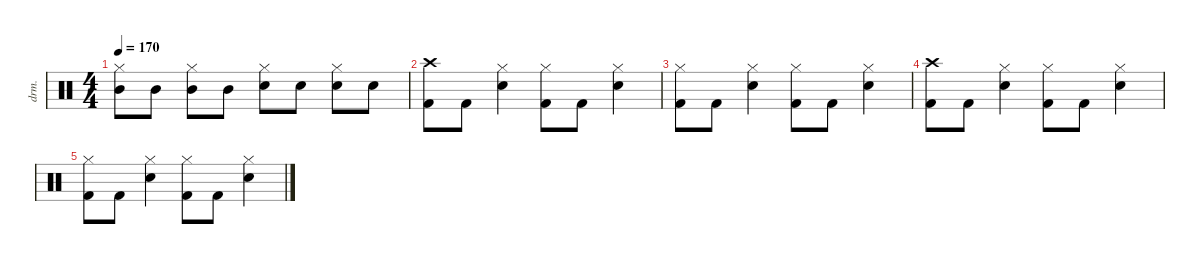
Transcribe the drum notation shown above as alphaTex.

\defaultSystemsLayout 4
\hideDynamics
\bracketExtendMode nobrackets
\otherSystemsTrackNameOrientation horizontal
\track ("Percussion" "drm.") {instrument percussion}
\staff {score}
\articulation defaults
\ts (4 4)
\tempo 170
\clef neutral
\ks c
("Hi-Hat (closed)" "Mid Tom (hit)").8{dy f beam Down} "Mid Tom (hit)".8{beam Down} ("Hi-Hat (closed)" "Mid Tom (hit)").8{beam Down} "Mid Tom (hit)".8{beam Down} ("Hi-Hat (closed)" "Snare (hit) 2").8{beam Down} "Snare (hit) 2".8{beam Down} ("Hi-Hat (closed)" "Snare (hit) 2").8{beam Down} "Snare (hit) 2".8{beam Down} |
("Crash high (hit)" "Kick (hit) 2").8{beam Down} "Kick (hit) 2".8{beam Down} ("Hi-Hat (closed)" "Snare (hit) 2").4{beam Down} ("Hi-Hat (closed)" "Kick (hit) 2").8{beam Down} "Kick (hit) 2".8{beam Down} ("Hi-Hat (closed)" "Snare (hit) 2").4{beam Down} |
("Hi-Hat (closed)" "Kick (hit) 2").8{beam Down} "Kick (hit) 2".8{beam Down} ("Hi-Hat (closed)" "Snare (hit) 2").4{beam Down} ("Hi-Hat (closed)" "Kick (hit) 2").8{beam Down} "Kick (hit) 2".8{beam Down} ("Hi-Hat (closed)" "Snare (hit) 2").4{beam Down} |
("Crash high (hit)" "Kick (hit) 2").8{beam Down} "Kick (hit) 2".8{beam Down} ("Hi-Hat (closed)" "Snare (hit) 2").4{beam Down} ("Hi-Hat (closed)" "Kick (hit) 2").8{beam Down} "Kick (hit) 2".8{beam Down} ("Hi-Hat (closed)" "Snare (hit) 2").4{beam Down} |
("Hi-Hat (closed)" "Kick (hit) 2").8{beam Down} "Kick (hit) 2".8{beam Down} ("Hi-Hat (closed)" "Snare (hit) 2").4{beam Down} ("Hi-Hat (closed)" "Kick (hit) 2").8{beam Down} "Kick (hit) 2".8{beam Down} ("Hi-Hat (closed)" "Snare (hit) 2").4{beam Down}
